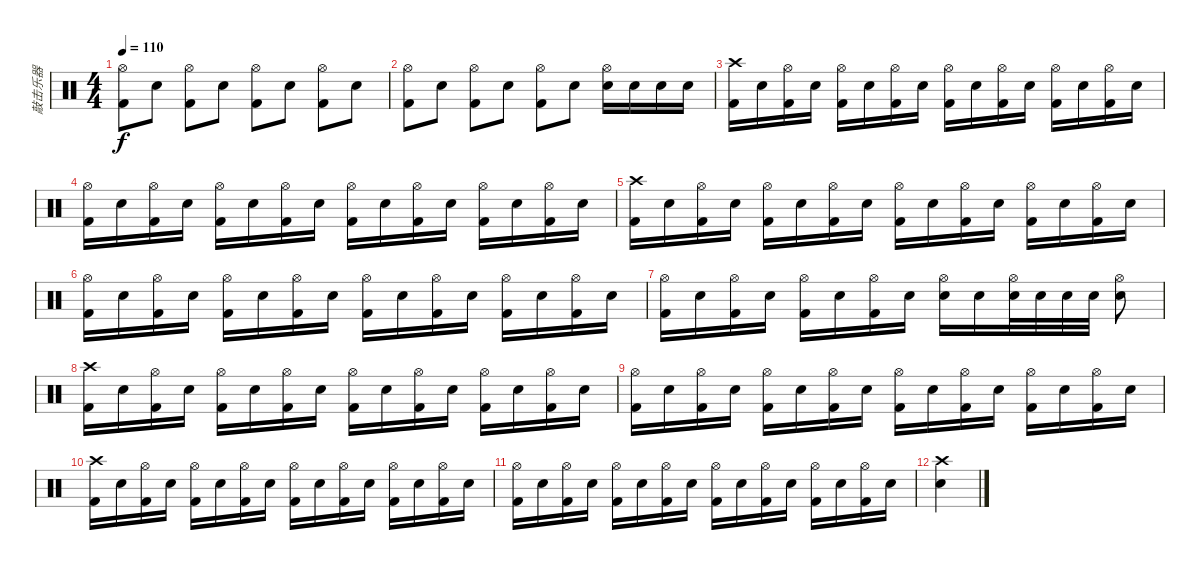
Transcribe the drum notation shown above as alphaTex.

\track ("敲击乐器" "敲击乐器") {instrument percussion}
\staff {score}
\articulation defaults
\ts (4 4)
\tempo 110
\clef neutral
\ks c
("Hi-Hat (open)" "Kick (hit) 2").8{dy f} "Snare (hit) 2".8 ("Hi-Hat (open)" "Kick (hit) 2").8 "Snare (hit) 2".8 ("Hi-Hat (open)" "Kick (hit) 2").8 "Snare (hit) 2".8 ("Hi-Hat (open)" "Kick (hit) 2").8 "Snare (hit) 2".8 |
("Hi-Hat (open)" "Kick (hit) 2").8 "Snare (hit) 2".8 ("Hi-Hat (open)" "Kick (hit) 2").8 "Snare (hit) 2".8 ("Hi-Hat (open)" "Kick (hit) 2").8 "Snare (hit) 2".8 ("Hi-Hat (open)" "Snare (hit) 2").16 "Snare (hit) 2".16 "Snare (hit) 2".16 "Snare (hit) 2".16 |
("Crash high (hit)" "Kick (hit) 2").16 "Snare (hit) 2".16 ("Hi-Hat (open)" "Kick (hit) 2").16 "Snare (hit) 2".16 ("Hi-Hat (open)" "Kick (hit) 2").16 "Snare (hit) 2".16 ("Hi-Hat (open)" "Kick (hit) 2").16 "Snare (hit) 2".16 ("Hi-Hat (open)" "Kick (hit) 2").16 "Snare (hit) 2".16 ("Hi-Hat (open)" "Kick (hit) 2").16 "Snare (hit) 2".16 ("Hi-Hat (open)" "Kick (hit) 2").16 "Snare (hit) 2".16 ("Hi-Hat (open)" "Kick (hit) 2").16 "Snare (hit) 2".16 |
("Hi-Hat (open)" "Kick (hit) 2").16 "Snare (hit) 2".16 ("Hi-Hat (open)" "Kick (hit) 2").16 "Snare (hit) 2".16 ("Hi-Hat (open)" "Kick (hit) 2").16 "Snare (hit) 2".16 ("Hi-Hat (open)" "Kick (hit) 2").16 "Snare (hit) 2".16 ("Hi-Hat (open)" "Kick (hit) 2").16 "Snare (hit) 2".16 ("Hi-Hat (open)" "Kick (hit) 2").16 "Snare (hit) 2".16 ("Hi-Hat (open)" "Kick (hit) 2").16 "Snare (hit) 2".16 ("Hi-Hat (open)" "Kick (hit) 2").16 "Snare (hit) 2".16 |
("Crash high (hit)" "Kick (hit) 2").16 "Snare (hit) 2".16 ("Hi-Hat (open)" "Kick (hit) 2").16 "Snare (hit) 2".16 ("Hi-Hat (open)" "Kick (hit) 2").16 "Snare (hit) 2".16 ("Hi-Hat (open)" "Kick (hit) 2").16 "Snare (hit) 2".16 ("Hi-Hat (open)" "Kick (hit) 2").16 "Snare (hit) 2".16 ("Hi-Hat (open)" "Kick (hit) 2").16 "Snare (hit) 2".16 ("Hi-Hat (open)" "Kick (hit) 2").16 "Snare (hit) 2".16 ("Hi-Hat (open)" "Kick (hit) 2").16 "Snare (hit) 2".16 |
("Hi-Hat (open)" "Kick (hit) 2").16 "Snare (hit) 2".16 ("Hi-Hat (open)" "Kick (hit) 2").16 "Snare (hit) 2".16 ("Hi-Hat (open)" "Kick (hit) 2").16 "Snare (hit) 2".16 ("Hi-Hat (open)" "Kick (hit) 2").16 "Snare (hit) 2".16 ("Hi-Hat (open)" "Kick (hit) 2").16 "Snare (hit) 2".16 ("Hi-Hat (open)" "Kick (hit) 2").16 "Snare (hit) 2".16 ("Hi-Hat (open)" "Kick (hit) 2").16 "Snare (hit) 2".16 ("Hi-Hat (open)" "Kick (hit) 2").16 "Snare (hit) 2".16 |
("Hi-Hat (open)" "Kick (hit) 2").16 "Snare (hit) 2".16 ("Hi-Hat (open)" "Kick (hit) 2").16 "Snare (hit) 2".16 ("Hi-Hat (open)" "Kick (hit) 2").16 "Snare (hit) 2".16 ("Hi-Hat (open)" "Kick (hit) 2").16 "Snare (hit) 2".16 ("Hi-Hat (open)" "Snare (hit) 2").16 "Snare (hit) 2".16 ("Hi-Hat (open)" "Snare (hit) 2").32 "Snare (hit) 2".32 "Snare (hit) 2".32 "Snare (hit) 2".32 ("Hi-Hat (open)" "Snare (hit) 2").8 |
("Crash high (hit)" "Kick (hit) 2").16 "Snare (hit) 2".16 ("Hi-Hat (open)" "Kick (hit) 2").16 "Snare (hit) 2".16 ("Hi-Hat (open)" "Kick (hit) 2").16 "Snare (hit) 2".16 ("Hi-Hat (open)" "Kick (hit) 2").16 "Snare (hit) 2".16 ("Hi-Hat (open)" "Kick (hit) 2").16 "Snare (hit) 2".16 ("Hi-Hat (open)" "Kick (hit) 2").16 "Snare (hit) 2".16 ("Hi-Hat (open)" "Kick (hit) 2").16 "Snare (hit) 2".16 ("Hi-Hat (open)" "Kick (hit) 2").16 "Snare (hit) 2".16 |
("Hi-Hat (open)" "Kick (hit) 2").16 "Snare (hit) 2".16 ("Hi-Hat (open)" "Kick (hit) 2").16 "Snare (hit) 2".16 ("Hi-Hat (open)" "Kick (hit) 2").16 "Snare (hit) 2".16 ("Hi-Hat (open)" "Kick (hit) 2").16 "Snare (hit) 2".16 ("Hi-Hat (open)" "Kick (hit) 2").16 "Snare (hit) 2".16 ("Hi-Hat (open)" "Kick (hit) 2").16 "Snare (hit) 2".16 ("Hi-Hat (open)" "Kick (hit) 2").16 "Snare (hit) 2".16 ("Hi-Hat (open)" "Kick (hit) 2").16 "Snare (hit) 2".16 |
("Crash high (hit)" "Kick (hit) 2").16 "Snare (hit) 2".16 ("Hi-Hat (open)" "Kick (hit) 2").16 "Snare (hit) 2".16 ("Hi-Hat (open)" "Kick (hit) 2").16 "Snare (hit) 2".16 ("Hi-Hat (open)" "Kick (hit) 2").16 "Snare (hit) 2".16 ("Hi-Hat (open)" "Kick (hit) 2").16 "Snare (hit) 2".16 ("Hi-Hat (open)" "Kick (hit) 2").16 "Snare (hit) 2".16 ("Hi-Hat (open)" "Kick (hit) 2").16 "Snare (hit) 2".16 ("Hi-Hat (open)" "Kick (hit) 2").16 "Snare (hit) 2".16 |
("Hi-Hat (open)" "Kick (hit) 2").16 "Snare (hit) 2".16 ("Hi-Hat (open)" "Kick (hit) 2").16 "Snare (hit) 2".16 ("Hi-Hat (open)" "Kick (hit) 2").16 "Snare (hit) 2".16 ("Hi-Hat (open)" "Kick (hit) 2").16 "Snare (hit) 2".16 ("Hi-Hat (open)" "Kick (hit) 2").16 "Snare (hit) 2".16 ("Hi-Hat (open)" "Kick (hit) 2").16 "Snare (hit) 2".16 ("Hi-Hat (open)" "Kick (hit) 2").16 "Snare (hit) 2".16 ("Hi-Hat (open)" "Kick (hit) 2").16 "Snare (hit) 2".16 |
("Crash high (hit)" "Snare (hit) 2").4
